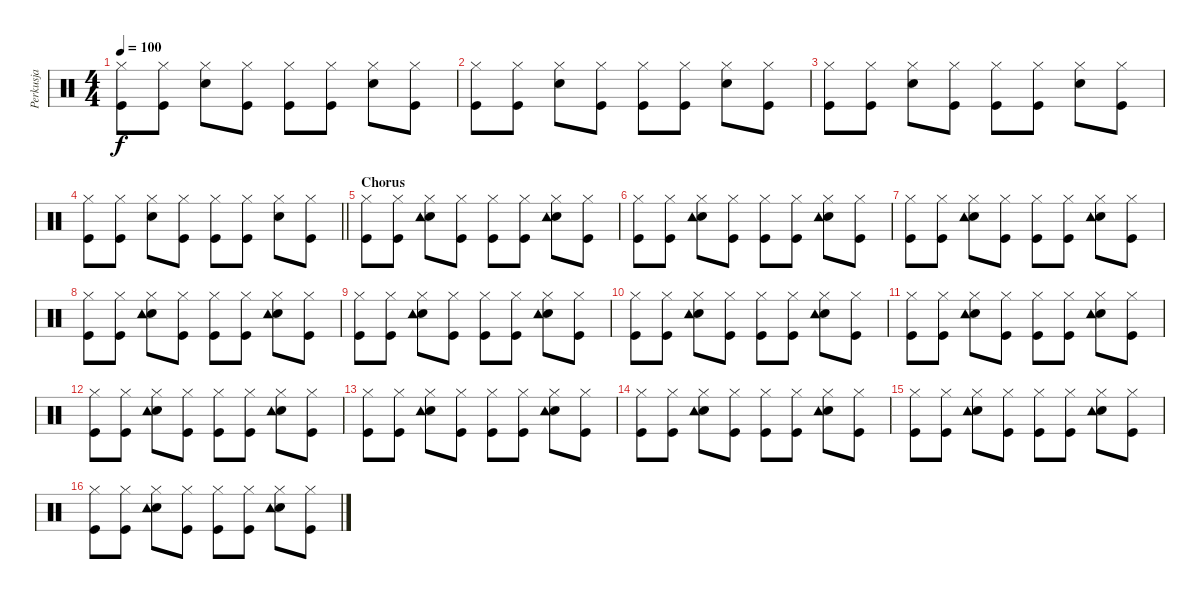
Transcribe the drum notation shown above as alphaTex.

\track ("Perkusja" "Perkusja") {instrument percussion}
\staff {score}
\articulation defaults
\ts (4 4)
\tempo 100
\clef neutral
\ks c
("Hi-Hat (closed)" "Kick (hit)").8{dy f} ("Hi-Hat (closed)" "Kick (hit)").8 ("Hi-Hat (closed)" "Electric Snare (hit)").8 ("Hi-Hat (closed)" "Kick (hit)").8 ("Hi-Hat (closed)" "Kick (hit)").8 ("Hi-Hat (closed)" "Kick (hit)").8 ("Hi-Hat (closed)" "Electric Snare (hit)").8 ("Hi-Hat (closed)" "Kick (hit)").8 |
("Hi-Hat (closed)" "Kick (hit)").8 ("Hi-Hat (closed)" "Kick (hit)").8 ("Hi-Hat (closed)" "Electric Snare (hit)").8 ("Hi-Hat (closed)" "Kick (hit)").8 ("Hi-Hat (closed)" "Kick (hit)").8 ("Hi-Hat (closed)" "Kick (hit)").8 ("Hi-Hat (closed)" "Electric Snare (hit)").8 ("Hi-Hat (closed)" "Kick (hit)").8 |
("Hi-Hat (closed)" "Kick (hit)").8 ("Hi-Hat (closed)" "Kick (hit)").8 ("Hi-Hat (closed)" "Electric Snare (hit)").8 ("Hi-Hat (closed)" "Kick (hit)").8 ("Hi-Hat (closed)" "Kick (hit)").8 ("Hi-Hat (closed)" "Kick (hit)").8 ("Hi-Hat (closed)" "Electric Snare (hit)").8 ("Hi-Hat (closed)" "Kick (hit)").8 |
\barLineRight lightlight
("Hi-Hat (closed)" "Kick (hit)").8 ("Hi-Hat (closed)" "Kick (hit)").8 ("Hi-Hat (closed)" "Electric Snare (hit)").8 ("Hi-Hat (closed)" "Kick (hit)").8 ("Hi-Hat (closed)" "Kick (hit)").8 ("Hi-Hat (closed)" "Kick (hit)").8 ("Hi-Hat (closed)" "Electric Snare (hit)").8 ("Hi-Hat (closed)" "Kick (hit)").8 |
\section ("" "Chorus")
("Hi-Hat (closed)" "Kick (hit)").8 ("Hi-Hat (closed)" "Kick (hit)").8 ("Hi-Hat (closed)" "Electric Snare (hit)" "Tambourine (hit)").8 ("Hi-Hat (closed)" "Kick (hit)").8 ("Hi-Hat (closed)" "Kick (hit)").8 ("Hi-Hat (closed)" "Kick (hit)").8 ("Hi-Hat (closed)" "Electric Snare (hit)" "Tambourine (hit)").8 ("Hi-Hat (closed)" "Kick (hit)").8 |
("Hi-Hat (closed)" "Kick (hit)").8 ("Hi-Hat (closed)" "Kick (hit)").8 ("Hi-Hat (closed)" "Electric Snare (hit)" "Tambourine (hit)").8 ("Hi-Hat (closed)" "Kick (hit)").8 ("Hi-Hat (closed)" "Kick (hit)").8 ("Hi-Hat (closed)" "Kick (hit)").8 ("Hi-Hat (closed)" "Electric Snare (hit)" "Tambourine (hit)").8 ("Hi-Hat (closed)" "Kick (hit)").8 |
("Hi-Hat (closed)" "Kick (hit)").8 ("Hi-Hat (closed)" "Kick (hit)").8 ("Hi-Hat (closed)" "Electric Snare (hit)" "Tambourine (hit)").8 ("Hi-Hat (closed)" "Kick (hit)").8 ("Hi-Hat (closed)" "Kick (hit)").8 ("Hi-Hat (closed)" "Kick (hit)").8 ("Hi-Hat (closed)" "Electric Snare (hit)" "Tambourine (hit)").8 ("Hi-Hat (closed)" "Kick (hit)").8 |
("Hi-Hat (closed)" "Kick (hit)").8 ("Hi-Hat (closed)" "Kick (hit)").8 ("Hi-Hat (closed)" "Electric Snare (hit)" "Tambourine (hit)").8 ("Hi-Hat (closed)" "Kick (hit)").8 ("Hi-Hat (closed)" "Kick (hit)").8 ("Hi-Hat (closed)" "Kick (hit)").8 ("Hi-Hat (closed)" "Electric Snare (hit)" "Tambourine (hit)").8 ("Hi-Hat (closed)" "Kick (hit)").8 |
("Hi-Hat (closed)" "Kick (hit)").8 ("Hi-Hat (closed)" "Kick (hit)").8 ("Hi-Hat (closed)" "Electric Snare (hit)" "Tambourine (hit)").8 ("Hi-Hat (closed)" "Kick (hit)").8 ("Hi-Hat (closed)" "Kick (hit)").8 ("Hi-Hat (closed)" "Kick (hit)").8 ("Hi-Hat (closed)" "Electric Snare (hit)" "Tambourine (hit)").8 ("Hi-Hat (closed)" "Kick (hit)").8 |
("Hi-Hat (closed)" "Kick (hit)").8 ("Hi-Hat (closed)" "Kick (hit)").8 ("Hi-Hat (closed)" "Electric Snare (hit)" "Tambourine (hit)").8 ("Hi-Hat (closed)" "Kick (hit)").8 ("Hi-Hat (closed)" "Kick (hit)").8 ("Hi-Hat (closed)" "Kick (hit)").8 ("Hi-Hat (closed)" "Electric Snare (hit)" "Tambourine (hit)").8 ("Hi-Hat (closed)" "Kick (hit)").8 |
("Hi-Hat (closed)" "Kick (hit)").8 ("Hi-Hat (closed)" "Kick (hit)").8 ("Hi-Hat (closed)" "Electric Snare (hit)" "Tambourine (hit)").8 ("Hi-Hat (closed)" "Kick (hit)").8 ("Hi-Hat (closed)" "Kick (hit)").8 ("Hi-Hat (closed)" "Kick (hit)").8 ("Hi-Hat (closed)" "Electric Snare (hit)" "Tambourine (hit)").8 ("Hi-Hat (closed)" "Kick (hit)").8 |
("Hi-Hat (closed)" "Kick (hit)").8 ("Hi-Hat (closed)" "Kick (hit)").8 ("Hi-Hat (closed)" "Electric Snare (hit)" "Tambourine (hit)").8 ("Hi-Hat (closed)" "Kick (hit)").8 ("Hi-Hat (closed)" "Kick (hit)").8 ("Hi-Hat (closed)" "Kick (hit)").8 ("Hi-Hat (closed)" "Electric Snare (hit)" "Tambourine (hit)").8 ("Hi-Hat (closed)" "Kick (hit)").8 |
("Hi-Hat (closed)" "Kick (hit)").8 ("Hi-Hat (closed)" "Kick (hit)").8 ("Hi-Hat (closed)" "Electric Snare (hit)" "Tambourine (hit)").8 ("Hi-Hat (closed)" "Kick (hit)").8 ("Hi-Hat (closed)" "Kick (hit)").8 ("Hi-Hat (closed)" "Kick (hit)").8 ("Hi-Hat (closed)" "Electric Snare (hit)" "Tambourine (hit)").8 ("Hi-Hat (closed)" "Kick (hit)").8 |
("Hi-Hat (closed)" "Kick (hit)").8 ("Hi-Hat (closed)" "Kick (hit)").8 ("Hi-Hat (closed)" "Electric Snare (hit)" "Tambourine (hit)").8 ("Hi-Hat (closed)" "Kick (hit)").8 ("Hi-Hat (closed)" "Kick (hit)").8 ("Hi-Hat (closed)" "Kick (hit)").8 ("Hi-Hat (closed)" "Electric Snare (hit)" "Tambourine (hit)").8 ("Hi-Hat (closed)" "Kick (hit)").8 |
("Hi-Hat (closed)" "Kick (hit)").8 ("Hi-Hat (closed)" "Kick (hit)").8 ("Hi-Hat (closed)" "Electric Snare (hit)" "Tambourine (hit)").8 ("Hi-Hat (closed)" "Kick (hit)").8 ("Hi-Hat (closed)" "Kick (hit)").8 ("Hi-Hat (closed)" "Kick (hit)").8 ("Hi-Hat (closed)" "Electric Snare (hit)" "Tambourine (hit)").8 ("Hi-Hat (closed)" "Kick (hit)").8 |
("Hi-Hat (closed)" "Kick (hit)").8 ("Hi-Hat (closed)" "Kick (hit)").8 ("Hi-Hat (closed)" "Electric Snare (hit)" "Tambourine (hit)").8 ("Hi-Hat (closed)" "Kick (hit)").8 ("Hi-Hat (closed)" "Kick (hit)").8 ("Hi-Hat (closed)" "Kick (hit)").8 ("Hi-Hat (closed)" "Electric Snare (hit)" "Tambourine (hit)").8 ("Hi-Hat (closed)" "Kick (hit)").8
